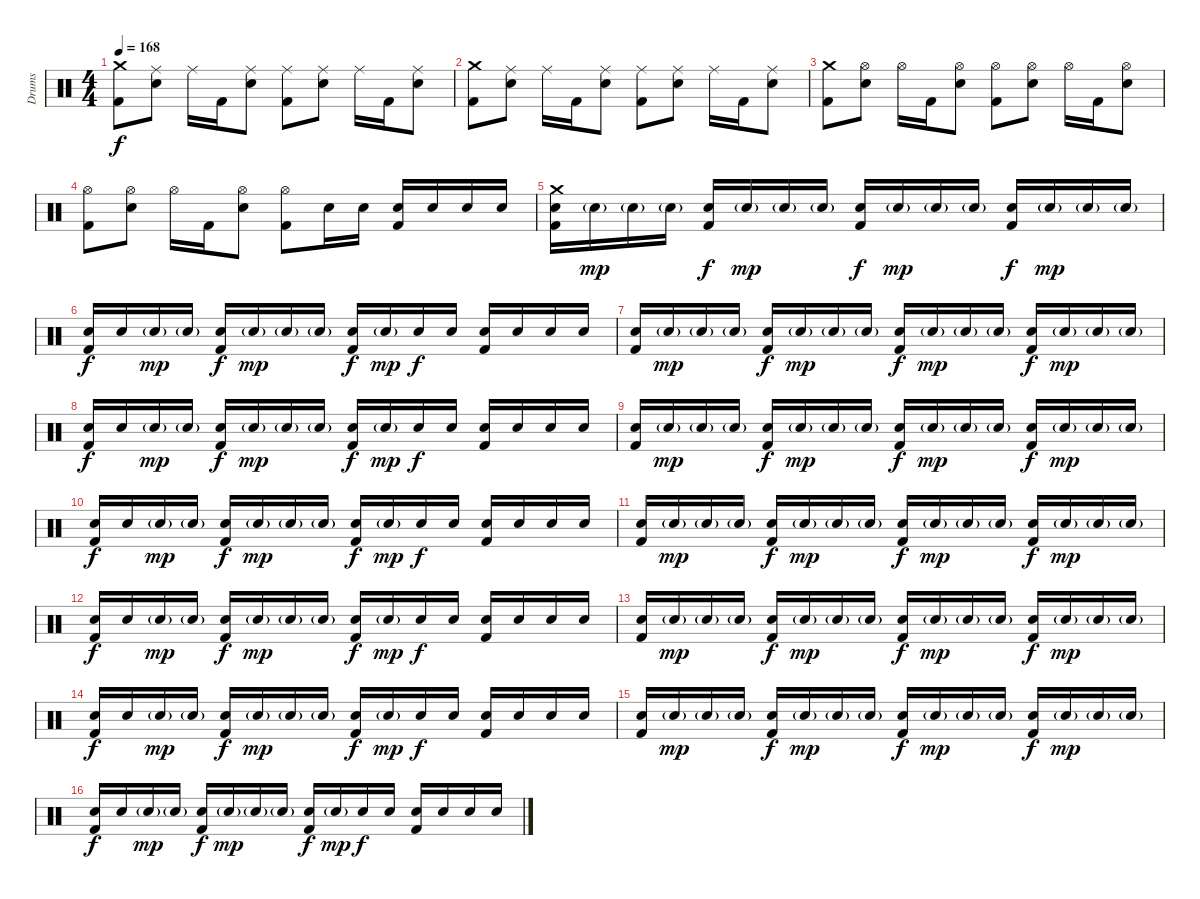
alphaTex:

\track ("Drums" "Drums") {instrument percussion}
\staff {score}
\articulation defaults
\ts (4 4)
\tempo 168
\clef neutral
\ks c
("Crash medium (hit)" "Kick (hit) 2").8{dy f} ("Ride (middle)" "Electric Snare (hit)").8 "Ride (middle)".16 "Kick (hit) 2".16 ("Ride (middle)" "Electric Snare (hit)").8 ("Ride (middle)" "Kick (hit) 2").8 ("Ride (middle)" "Electric Snare (hit)").8 "Ride (middle)".16 "Kick (hit) 2".16 ("Ride (middle)" "Electric Snare (hit)").8 |
("Crash medium (hit)" "Kick (hit) 2").8 ("Ride (middle)" "Electric Snare (hit)").8 "Ride (middle)".16 "Kick (hit) 2".16 ("Ride (middle)" "Electric Snare (hit)").8 ("Ride (middle)" "Kick (hit) 2").8 ("Ride (middle)" "Electric Snare (hit)").8 "Ride (middle)".16 "Kick (hit) 2".16 ("Ride (middle)" "Electric Snare (hit)").8 |
("Crash medium (hit)" "Kick (hit) 2").8 ("Hi-Hat (open)" "Electric Snare (hit)").8 "Hi-Hat (open)".16 "Kick (hit) 2".16 ("Hi-Hat (open)" "Electric Snare (hit)").8 ("Hi-Hat (open)" "Kick (hit) 2").8 ("Hi-Hat (open)" "Electric Snare (hit)").8 "Hi-Hat (open)".16 "Kick (hit) 2".16 ("Hi-Hat (open)" "Electric Snare (hit)").8 |
("Hi-Hat (open)" "Kick (hit) 2").8 ("Hi-Hat (open)" "Electric Snare (hit)").8 "Hi-Hat (open)".16 "Kick (hit) 2".16 ("Hi-Hat (open)" "Electric Snare (hit)").8 ("Hi-Hat (open)" "Kick (hit) 2").8 "Electric Snare (hit)".16 "Electric Snare (hit)".16 ("Electric Snare (hit)" "Kick (hit) 2").16 "Electric Snare (hit)".16 "Electric Snare (hit)".16 "Electric Snare (hit)".16 |
("Crash medium (hit)" "Electric Snare (hit)" "Kick (hit) 2").16 "Electric Snare (hit)"{g}.16{dy mp} "Electric Snare (hit)"{g}.16 "Electric Snare (hit)"{g}.16 ("Electric Snare (hit)" "Kick (hit) 2").16{dy f} "Electric Snare (hit)"{g}.16{dy mp} "Electric Snare (hit)"{g}.16 "Electric Snare (hit)"{g}.16 ("Electric Snare (hit)" "Kick (hit) 2").16{dy f} "Electric Snare (hit)"{g}.16{dy mp} "Electric Snare (hit)"{g}.16 "Electric Snare (hit)"{g}.16 ("Electric Snare (hit)" "Kick (hit) 2").16{dy f} "Electric Snare (hit)"{g}.16{dy mp} "Electric Snare (hit)"{g}.16 "Electric Snare (hit)"{g}.16 |
("Electric Snare (hit)" "Kick (hit) 2").16{dy f} "Electric Snare (hit)".16 "Electric Snare (hit)"{g}.16{dy mp} "Electric Snare (hit)"{g}.16 ("Electric Snare (hit)" "Kick (hit) 2").16{dy f} "Electric Snare (hit)"{g}.16{dy mp} "Electric Snare (hit)"{g}.16 "Electric Snare (hit)"{g}.16 ("Electric Snare (hit)" "Kick (hit) 2").16{dy f} "Electric Snare (hit)"{g}.16{dy mp} "Electric Snare (hit)".16{dy f} "Electric Snare (hit)".16 ("Electric Snare (hit)" "Kick (hit) 2").16 "Electric Snare (hit)".16 "Electric Snare (hit)".16 "Electric Snare (hit)".16 |
("Electric Snare (hit)" "Kick (hit) 2").16 "Electric Snare (hit)"{g}.16{dy mp} "Electric Snare (hit)"{g}.16 "Electric Snare (hit)"{g}.16 ("Electric Snare (hit)" "Kick (hit) 2").16{dy f} "Electric Snare (hit)"{g}.16{dy mp} "Electric Snare (hit)"{g}.16 "Electric Snare (hit)"{g}.16 ("Electric Snare (hit)" "Kick (hit) 2").16{dy f} "Electric Snare (hit)"{g}.16{dy mp} "Electric Snare (hit)"{g}.16 "Electric Snare (hit)"{g}.16 ("Electric Snare (hit)" "Kick (hit) 2").16{dy f} "Electric Snare (hit)"{g}.16{dy mp} "Electric Snare (hit)"{g}.16 "Electric Snare (hit)"{g}.16 |
("Electric Snare (hit)" "Kick (hit) 2").16{dy f} "Electric Snare (hit)".16 "Electric Snare (hit)"{g}.16{dy mp} "Electric Snare (hit)"{g}.16 ("Electric Snare (hit)" "Kick (hit) 2").16{dy f} "Electric Snare (hit)"{g}.16{dy mp} "Electric Snare (hit)"{g}.16 "Electric Snare (hit)"{g}.16 ("Electric Snare (hit)" "Kick (hit) 2").16{dy f} "Electric Snare (hit)"{g}.16{dy mp} "Electric Snare (hit)".16{dy f} "Electric Snare (hit)".16 ("Electric Snare (hit)" "Kick (hit) 2").16 "Electric Snare (hit)".16 "Electric Snare (hit)".16 "Electric Snare (hit)".16 |
("Electric Snare (hit)" "Kick (hit) 2").16 "Electric Snare (hit)"{g}.16{dy mp} "Electric Snare (hit)"{g}.16 "Electric Snare (hit)"{g}.16 ("Electric Snare (hit)" "Kick (hit) 2").16{dy f} "Electric Snare (hit)"{g}.16{dy mp} "Electric Snare (hit)"{g}.16 "Electric Snare (hit)"{g}.16 ("Electric Snare (hit)" "Kick (hit) 2").16{dy f} "Electric Snare (hit)"{g}.16{dy mp} "Electric Snare (hit)"{g}.16 "Electric Snare (hit)"{g}.16 ("Electric Snare (hit)" "Kick (hit) 2").16{dy f} "Electric Snare (hit)"{g}.16{dy mp} "Electric Snare (hit)"{g}.16 "Electric Snare (hit)"{g}.16 |
("Electric Snare (hit)" "Kick (hit) 2").16{dy f} "Electric Snare (hit)".16 "Electric Snare (hit)"{g}.16{dy mp} "Electric Snare (hit)"{g}.16 ("Electric Snare (hit)" "Kick (hit) 2").16{dy f} "Electric Snare (hit)"{g}.16{dy mp} "Electric Snare (hit)"{g}.16 "Electric Snare (hit)"{g}.16 ("Electric Snare (hit)" "Kick (hit) 2").16{dy f} "Electric Snare (hit)"{g}.16{dy mp} "Electric Snare (hit)".16{dy f} "Electric Snare (hit)".16 ("Electric Snare (hit)" "Kick (hit) 2").16 "Electric Snare (hit)".16 "Electric Snare (hit)".16 "Electric Snare (hit)".16 |
("Electric Snare (hit)" "Kick (hit) 2").16 "Electric Snare (hit)"{g}.16{dy mp} "Electric Snare (hit)"{g}.16 "Electric Snare (hit)"{g}.16 ("Electric Snare (hit)" "Kick (hit) 2").16{dy f} "Electric Snare (hit)"{g}.16{dy mp} "Electric Snare (hit)"{g}.16 "Electric Snare (hit)"{g}.16 ("Electric Snare (hit)" "Kick (hit) 2").16{dy f} "Electric Snare (hit)"{g}.16{dy mp} "Electric Snare (hit)"{g}.16 "Electric Snare (hit)"{g}.16 ("Electric Snare (hit)" "Kick (hit) 2").16{dy f} "Electric Snare (hit)"{g}.16{dy mp} "Electric Snare (hit)"{g}.16 "Electric Snare (hit)"{g}.16 |
("Electric Snare (hit)" "Kick (hit) 2").16{dy f} "Electric Snare (hit)".16 "Electric Snare (hit)"{g}.16{dy mp} "Electric Snare (hit)"{g}.16 ("Electric Snare (hit)" "Kick (hit) 2").16{dy f} "Electric Snare (hit)"{g}.16{dy mp} "Electric Snare (hit)"{g}.16 "Electric Snare (hit)"{g}.16 ("Electric Snare (hit)" "Kick (hit) 2").16{dy f} "Electric Snare (hit)"{g}.16{dy mp} "Electric Snare (hit)".16{dy f} "Electric Snare (hit)".16 ("Electric Snare (hit)" "Kick (hit) 2").16 "Electric Snare (hit)".16 "Electric Snare (hit)".16 "Electric Snare (hit)".16 |
("Electric Snare (hit)" "Kick (hit) 2").16 "Electric Snare (hit)"{g}.16{dy mp} "Electric Snare (hit)"{g}.16 "Electric Snare (hit)"{g}.16 ("Electric Snare (hit)" "Kick (hit) 2").16{dy f} "Electric Snare (hit)"{g}.16{dy mp} "Electric Snare (hit)"{g}.16 "Electric Snare (hit)"{g}.16 ("Electric Snare (hit)" "Kick (hit) 2").16{dy f} "Electric Snare (hit)"{g}.16{dy mp} "Electric Snare (hit)"{g}.16 "Electric Snare (hit)"{g}.16 ("Electric Snare (hit)" "Kick (hit) 2").16{dy f} "Electric Snare (hit)"{g}.16{dy mp} "Electric Snare (hit)"{g}.16 "Electric Snare (hit)"{g}.16 |
("Electric Snare (hit)" "Kick (hit) 2").16{dy f} "Electric Snare (hit)".16 "Electric Snare (hit)"{g}.16{dy mp} "Electric Snare (hit)"{g}.16 ("Electric Snare (hit)" "Kick (hit) 2").16{dy f} "Electric Snare (hit)"{g}.16{dy mp} "Electric Snare (hit)"{g}.16 "Electric Snare (hit)"{g}.16 ("Electric Snare (hit)" "Kick (hit) 2").16{dy f} "Electric Snare (hit)"{g}.16{dy mp} "Electric Snare (hit)".16{dy f} "Electric Snare (hit)".16 ("Electric Snare (hit)" "Kick (hit) 2").16 "Electric Snare (hit)".16 "Electric Snare (hit)".16 "Electric Snare (hit)".16 |
("Electric Snare (hit)" "Kick (hit) 2").16 "Electric Snare (hit)"{g}.16{dy mp} "Electric Snare (hit)"{g}.16 "Electric Snare (hit)"{g}.16 ("Electric Snare (hit)" "Kick (hit) 2").16{dy f} "Electric Snare (hit)"{g}.16{dy mp} "Electric Snare (hit)"{g}.16 "Electric Snare (hit)"{g}.16 ("Electric Snare (hit)" "Kick (hit) 2").16{dy f} "Electric Snare (hit)"{g}.16{dy mp} "Electric Snare (hit)"{g}.16 "Electric Snare (hit)"{g}.16 ("Electric Snare (hit)" "Kick (hit) 2").16{dy f} "Electric Snare (hit)"{g}.16{dy mp} "Electric Snare (hit)"{g}.16 "Electric Snare (hit)"{g}.16 |
("Electric Snare (hit)" "Kick (hit) 2").16{dy f} "Electric Snare (hit)".16 "Electric Snare (hit)"{g}.16{dy mp} "Electric Snare (hit)"{g}.16 ("Electric Snare (hit)" "Kick (hit) 2").16{dy f} "Electric Snare (hit)"{g}.16{dy mp} "Electric Snare (hit)"{g}.16 "Electric Snare (hit)"{g}.16 ("Electric Snare (hit)" "Kick (hit) 2").16{dy f} "Electric Snare (hit)"{g}.16{dy mp} "Electric Snare (hit)".16{dy f} "Electric Snare (hit)".16 ("Electric Snare (hit)" "Kick (hit) 2").16 "Electric Snare (hit)".16 "Electric Snare (hit)".16 "Electric Snare (hit)".16
